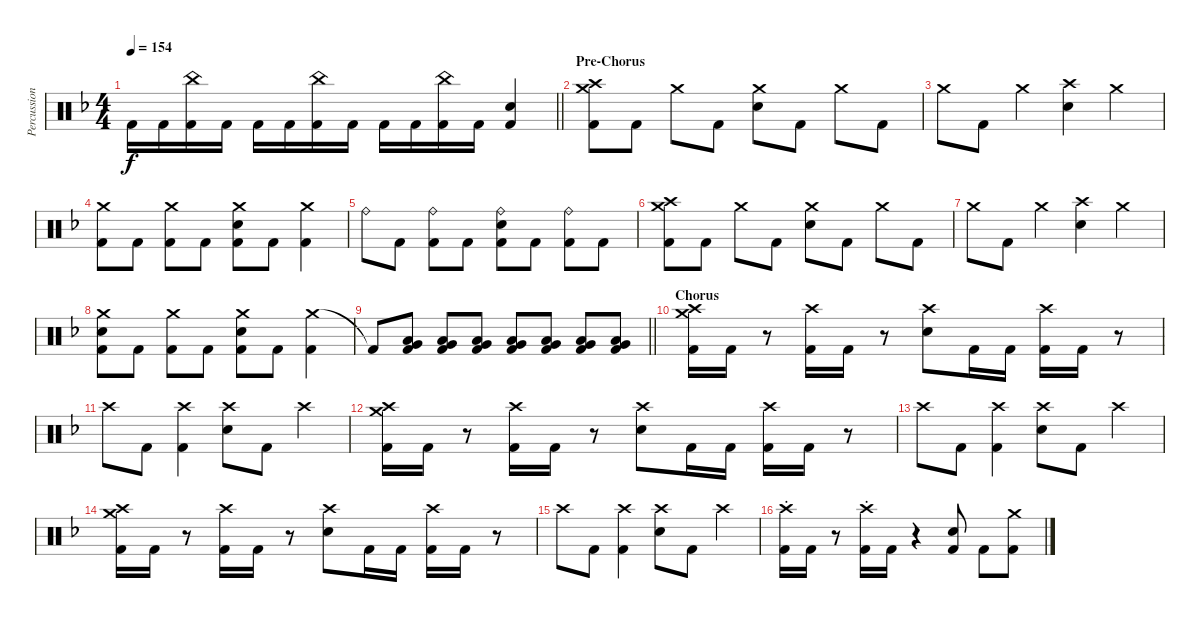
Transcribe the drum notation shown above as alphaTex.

\track ("Percussion" "Percussion") {instrument percussion}
\staff {score}
\articulation defaults
\ts (4 4)
\tempo 154
\clef neutral
\barLineRight lightlight
\ks dminor "Kick (hit) 2".16{dy f} "Kick (hit) 2".16
("China (hit)" "Kick (hit) 2").16 "Kick (hit) 2".16 "Kick (hit) 2".16 "Kick (hit) 2".16 ("China (hit)" "Kick (hit) 2").16 "Kick (hit) 2".16 "Kick (hit) 2".16 "Kick (hit) 2".16 ("China (hit)" "Kick (hit) 2").16 "Kick (hit) 2".16 ("Electric Snare (hit)" "Kick (hit) 2").4 |
\section ("" "Pre-Chorus")
("Crash medium (hit)" "Crash high (hit)" "Kick (hit) 2").8 "Kick (hit) 2".8 "Crash medium (hit)".8 "Kick (hit) 2".8 ("Crash medium (hit)" "Electric Snare (hit)").8 "Kick (hit) 2".8 "Crash medium (hit)".8 "Kick (hit) 2".8 |
"Crash medium (hit)".8 "Kick (hit) 2".8 "Crash medium (hit)".4 ("Crash high (hit)" "Electric Snare (hit)").4 "Crash medium (hit)".4 |
("Crash medium (hit)" "Kick (hit) 2").8 "Kick (hit) 2".8 ("Crash medium (hit)" "Kick (hit) 2").8 "Kick (hit) 2".8 ("Crash medium (hit)" "Electric Snare (hit)" "Kick (hit) 2").8 "Kick (hit) 2".8 ("Crash medium (hit)" "Kick (hit) 2").4 |
"Ride (bell)".8 "Kick (hit) 2".8 ("Ride (bell)" "Kick (hit) 2").8 "Kick (hit) 2".8 ("Ride (bell)" "Electric Snare (hit)" "Kick (hit) 2").8 "Kick (hit) 2".8 ("Ride (bell)" "Kick (hit) 2").8 "Kick (hit) 2".8 |
("Crash medium (hit)" "Crash high (hit)" "Kick (hit) 2").8 "Kick (hit) 2".8 "Crash medium (hit)".8 "Kick (hit) 2".8 ("Crash medium (hit)" "Electric Snare (hit)").8 "Kick (hit) 2".8 "Crash medium (hit)".8 "Kick (hit) 2".8 |
"Crash medium (hit)".8 "Kick (hit) 2".8 "Crash medium (hit)".4 ("Crash high (hit)" "Electric Snare (hit)").4 "Crash medium (hit)".4 |
("Crash medium (hit)" "Electric Snare (hit)" "Kick (hit) 2").8 "Kick (hit) 2".8 ("Crash medium (hit)" "Kick (hit) 2").8 "Kick (hit) 2".8 ("Crash medium (hit)" "Electric Snare (hit)" "Kick (hit) 2").8 "Kick (hit) 2".8 ("Crash medium (hit)" "Kick (hit) 2").4 |
\barLineRight lightlight "Kick (hit) 2"{t}.8
("Low Tom (hit)" "Very Low Tom (hit)" "Kick (hit) 2").8 ("Low Tom (hit)" "Very Low Tom (hit)" "Kick (hit) 2").8 ("Low Tom (hit)" "Very Low Tom (hit)" "Kick (hit) 2").8 ("Low Tom (hit)" "Very Low Tom (hit)" "Kick (hit) 2").8 ("Low Tom (hit)" "Very Low Tom (hit)" "Kick (hit) 2").8 ("Low Tom (hit)" "Very Low Tom (hit)" "Kick (hit) 2").8 ("Low Tom (hit)" "Very Low Tom (hit)" "Kick (hit) 2").8 |
\section ("" "Chorus")
("Crash medium (hit)" "Crash high (hit)" "Kick (hit) 2").16 "Kick (hit) 2".16 r.8 ("Crash high (hit)" "Kick (hit) 2").16 "Kick (hit) 2".16 r.8 ("Crash high (hit)" "Electric Snare (hit)").8 "Kick (hit) 2".16 "Kick (hit) 2".16 ("Crash high (hit)" "Kick (hit) 2").16 "Kick (hit) 2".16 r.8 |
"Crash high (hit)".8 "Kick (hit) 2".8 ("Crash high (hit)" "Kick (hit) 2").4 ("Crash high (hit)" "Electric Snare (hit)").8 "Kick (hit) 2".8 "Crash high (hit)".4 |
("Crash medium (hit)" "Crash high (hit)" "Kick (hit) 2").16 "Kick (hit) 2".16 r.8 ("Crash high (hit)" "Kick (hit) 2").16 "Kick (hit) 2".16 r.8 ("Crash high (hit)" "Electric Snare (hit)").8 "Kick (hit) 2".16 "Kick (hit) 2".16 ("Crash high (hit)" "Kick (hit) 2").16 "Kick (hit) 2".16 r.8 |
"Crash high (hit)".8 "Kick (hit) 2".8 ("Crash high (hit)" "Kick (hit) 2").4 ("Crash high (hit)" "Electric Snare (hit)").8 "Kick (hit) 2".8 "Crash high (hit)".4 |
("Crash medium (hit)" "Crash high (hit)" "Kick (hit) 2").16 "Kick (hit) 2".16 r.8 ("Crash high (hit)" "Kick (hit) 2").16 "Kick (hit) 2".16 r.8 ("Crash high (hit)" "Electric Snare (hit)").8 "Kick (hit) 2".16 "Kick (hit) 2".16 ("Crash high (hit)" "Kick (hit) 2").16 "Kick (hit) 2".16 r.8 |
"Crash high (hit)".8 "Kick (hit) 2".8 ("Crash high (hit)" "Kick (hit) 2").4 ("Crash high (hit)" "Electric Snare (hit)").8 "Kick (hit) 2".8 "Crash high (hit)".4 |
("Crash high (hit)"{st} "Kick (hit) 2").16 "Kick (hit) 2".16 r.8{volume 0} ("Crash high (hit)"{st} "Kick (hit) 2").16{volume 14} "Kick (hit) 2".16 r.4{volume 0} ("Electric Snare (hit)" "Kick (hit) 2").8{volume 14} "Kick (hit) 2".8 ("Crash medium (hit)" "Kick (hit) 2").8
